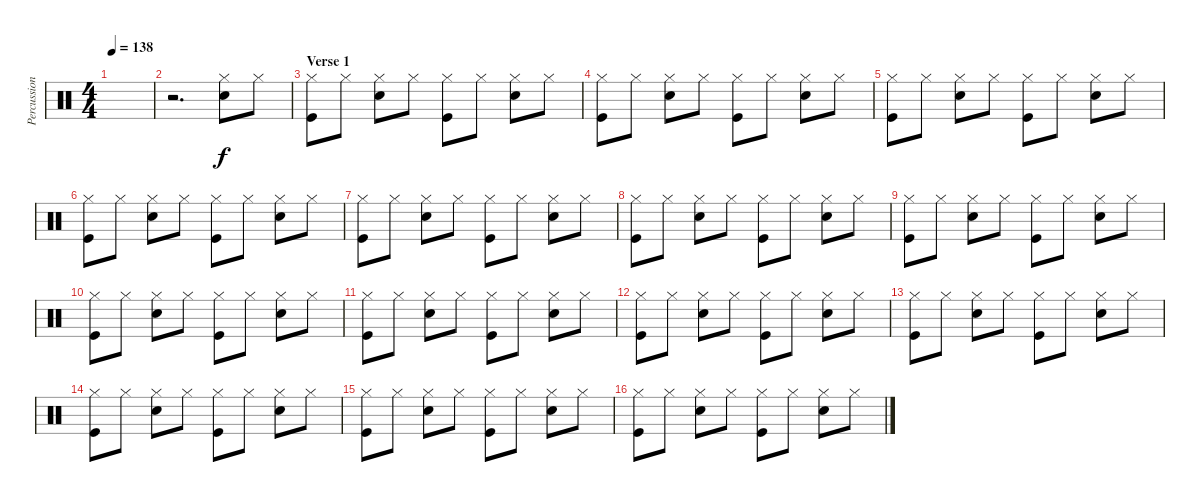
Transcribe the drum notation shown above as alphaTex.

\track ("Percussion" "Percussion") {instrument percussion}
\staff {score}
\articulation defaults
\ts (4 4)
\tempo 138
\clef neutral
\ks c
|
r.2{d} ("Hi-Hat (closed)" "Electric Snare (hit)").8 "Hi-Hat (closed)".8 |
\section ("" "Verse 1")
("Hi-Hat (closed)" "Kick (hit)").8 "Hi-Hat (closed)".8 ("Hi-Hat (closed)" "Electric Snare (hit)").8 "Hi-Hat (closed)".8 ("Hi-Hat (closed)" "Kick (hit)").8 "Hi-Hat (closed)".8 ("Hi-Hat (closed)" "Electric Snare (hit)").8 "Hi-Hat (closed)".8 |
("Hi-Hat (closed)" "Kick (hit)").8 "Hi-Hat (closed)".8 ("Hi-Hat (closed)" "Electric Snare (hit)").8 "Hi-Hat (closed)".8 ("Hi-Hat (closed)" "Kick (hit)").8 "Hi-Hat (closed)".8 ("Hi-Hat (closed)" "Electric Snare (hit)").8 "Hi-Hat (closed)".8 |
("Hi-Hat (closed)" "Kick (hit)").8 "Hi-Hat (closed)".8 ("Hi-Hat (closed)" "Electric Snare (hit)").8 "Hi-Hat (closed)".8 ("Hi-Hat (closed)" "Kick (hit)").8 "Hi-Hat (closed)".8 ("Hi-Hat (closed)" "Electric Snare (hit)").8 "Hi-Hat (closed)".8 |
("Hi-Hat (closed)" "Kick (hit)").8 "Hi-Hat (closed)".8 ("Hi-Hat (closed)" "Electric Snare (hit)").8 "Hi-Hat (closed)".8 ("Hi-Hat (closed)" "Kick (hit)").8 "Hi-Hat (closed)".8 ("Hi-Hat (closed)" "Electric Snare (hit)").8 "Hi-Hat (closed)".8 |
("Hi-Hat (closed)" "Kick (hit)").8 "Hi-Hat (closed)".8 ("Hi-Hat (closed)" "Electric Snare (hit)").8 "Hi-Hat (closed)".8 ("Hi-Hat (closed)" "Kick (hit)").8 "Hi-Hat (closed)".8 ("Hi-Hat (closed)" "Electric Snare (hit)").8 "Hi-Hat (closed)".8 |
("Hi-Hat (closed)" "Kick (hit)").8 "Hi-Hat (closed)".8 ("Hi-Hat (closed)" "Electric Snare (hit)").8 "Hi-Hat (closed)".8 ("Hi-Hat (closed)" "Kick (hit)").8 "Hi-Hat (closed)".8 ("Hi-Hat (closed)" "Electric Snare (hit)").8 "Hi-Hat (closed)".8 |
("Hi-Hat (closed)" "Kick (hit)").8 "Hi-Hat (closed)".8 ("Hi-Hat (closed)" "Electric Snare (hit)").8 "Hi-Hat (closed)".8 ("Hi-Hat (closed)" "Kick (hit)").8 "Hi-Hat (closed)".8 ("Hi-Hat (closed)" "Electric Snare (hit)").8 "Hi-Hat (closed)".8 |
("Hi-Hat (closed)" "Kick (hit)").8 "Hi-Hat (closed)".8 ("Hi-Hat (closed)" "Electric Snare (hit)").8 "Hi-Hat (closed)".8 ("Hi-Hat (closed)" "Kick (hit)").8 "Hi-Hat (closed)".8 ("Hi-Hat (closed)" "Electric Snare (hit)").8 "Hi-Hat (closed)".8 |
("Hi-Hat (closed)" "Kick (hit)").8 "Hi-Hat (closed)".8 ("Hi-Hat (closed)" "Electric Snare (hit)").8 "Hi-Hat (closed)".8 ("Hi-Hat (closed)" "Kick (hit)").8 "Hi-Hat (closed)".8 ("Hi-Hat (closed)" "Electric Snare (hit)").8 "Hi-Hat (closed)".8 |
("Hi-Hat (closed)" "Kick (hit)").8 "Hi-Hat (closed)".8 ("Hi-Hat (closed)" "Electric Snare (hit)").8 "Hi-Hat (closed)".8 ("Hi-Hat (closed)" "Kick (hit)").8 "Hi-Hat (closed)".8 ("Hi-Hat (closed)" "Electric Snare (hit)").8 "Hi-Hat (closed)".8 |
("Hi-Hat (closed)" "Kick (hit)").8 "Hi-Hat (closed)".8 ("Hi-Hat (closed)" "Electric Snare (hit)").8 "Hi-Hat (closed)".8 ("Hi-Hat (closed)" "Kick (hit)").8 "Hi-Hat (closed)".8 ("Hi-Hat (closed)" "Electric Snare (hit)").8 "Hi-Hat (closed)".8 |
("Hi-Hat (closed)" "Kick (hit)").8 "Hi-Hat (closed)".8 ("Hi-Hat (closed)" "Electric Snare (hit)").8 "Hi-Hat (closed)".8 ("Hi-Hat (closed)" "Kick (hit)").8 "Hi-Hat (closed)".8 ("Hi-Hat (closed)" "Electric Snare (hit)").8 "Hi-Hat (closed)".8 |
("Hi-Hat (closed)" "Kick (hit)").8 "Hi-Hat (closed)".8 ("Hi-Hat (closed)" "Electric Snare (hit)").8 "Hi-Hat (closed)".8 ("Hi-Hat (closed)" "Kick (hit)").8 "Hi-Hat (closed)".8 ("Hi-Hat (closed)" "Electric Snare (hit)").8 "Hi-Hat (closed)".8 |
("Hi-Hat (closed)" "Kick (hit)").8 "Hi-Hat (closed)".8 ("Hi-Hat (closed)" "Electric Snare (hit)").8 "Hi-Hat (closed)".8 ("Hi-Hat (closed)" "Kick (hit)").8 "Hi-Hat (closed)".8 ("Hi-Hat (closed)" "Electric Snare (hit)").8 "Hi-Hat (closed)".8
